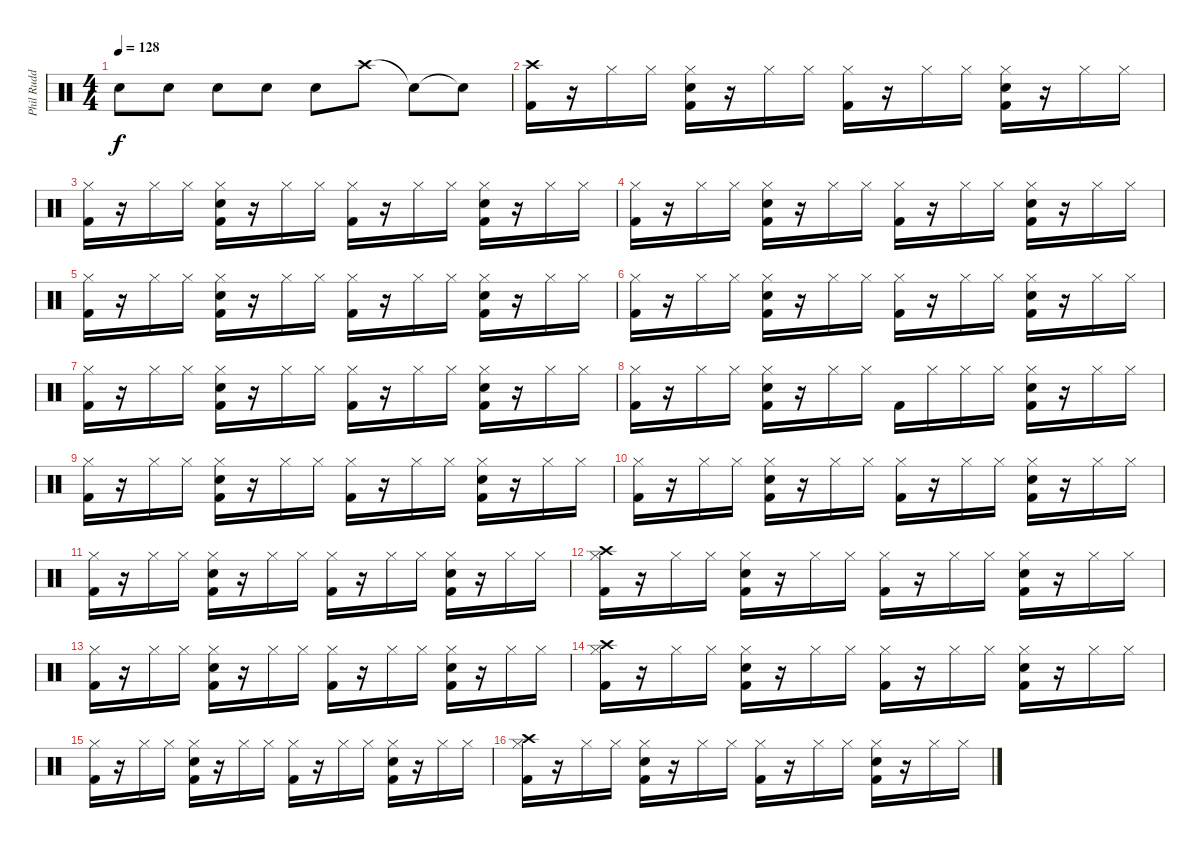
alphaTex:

\track ("Phil Rudd" "Phil Rudd") {instrument percussion}
\staff {score}
\articulation defaults
\ts (4 4)
\tempo 128
\clef neutral
\ks c "Snare (hit) 2".8{dy f} "Snare (hit) 2".8 "Snare (hit) 2".8 "Snare (hit) 2".8 "Snare (hit) 2".8 "Crash high (hit)".8 "Snare (hit)"{t}.8 "Snare (hit)"{t}.8
|
("Crash high (hit)" "Kick (hit) 2").16 r.16 "Hi-Hat (closed)".16 "Hi-Hat (closed)".16 ("Hi-Hat (closed)" "Snare (hit) 2" "Kick (hit) 2").16 r.16 "Hi-Hat (closed)".16 "Hi-Hat (closed)".16 ("Hi-Hat (closed)" "Kick (hit) 2").16 r.16 "Hi-Hat (closed)".16 "Hi-Hat (closed)".16 ("Hi-Hat (closed)" "Snare (hit) 2" "Kick (hit) 2").16 r.16 "Hi-Hat (closed)".16 "Hi-Hat (closed)".16 |
("Hi-Hat (closed)" "Kick (hit) 2").16 r.16 "Hi-Hat (closed)".16 "Hi-Hat (closed)".16 ("Hi-Hat (closed)" "Snare (hit) 2" "Kick (hit) 2").16 r.16 "Hi-Hat (closed)".16 "Hi-Hat (closed)".16 ("Hi-Hat (closed)" "Kick (hit) 2").16 r.16 "Hi-Hat (closed)".16 "Hi-Hat (closed)".16 ("Hi-Hat (closed)" "Snare (hit) 2" "Kick (hit) 2").16 r.16 "Hi-Hat (closed)".16 "Hi-Hat (closed)".16 |
("Hi-Hat (closed)" "Kick (hit) 2").16 r.16 "Hi-Hat (closed)".16 "Hi-Hat (closed)".16 ("Hi-Hat (closed)" "Snare (hit) 2" "Kick (hit) 2").16 r.16 "Hi-Hat (closed)".16 "Hi-Hat (closed)".16 ("Hi-Hat (closed)" "Kick (hit) 2").16 r.16 "Hi-Hat (closed)".16 "Hi-Hat (closed)".16 ("Hi-Hat (closed)" "Snare (hit) 2" "Kick (hit) 2").16 r.16 "Hi-Hat (closed)".16 "Hi-Hat (closed)".16 |
("Hi-Hat (closed)" "Kick (hit) 2").16 r.16 "Hi-Hat (closed)".16 "Hi-Hat (closed)".16 ("Hi-Hat (closed)" "Snare (hit) 2" "Kick (hit) 2").16 r.16 "Hi-Hat (closed)".16 "Hi-Hat (closed)".16 ("Hi-Hat (closed)" "Kick (hit) 2").16 r.16 "Hi-Hat (closed)".16 "Hi-Hat (closed)".16 ("Hi-Hat (closed)" "Snare (hit) 2" "Kick (hit) 2").16 r.16 "Hi-Hat (closed)".16 "Hi-Hat (closed)".16 |
("Hi-Hat (closed)" "Kick (hit) 2").16 r.16 "Hi-Hat (closed)".16 "Hi-Hat (closed)".16 ("Hi-Hat (closed)" "Snare (hit) 2" "Kick (hit) 2").16 r.16 "Hi-Hat (closed)".16 "Hi-Hat (closed)".16 ("Hi-Hat (closed)" "Kick (hit) 2").16 r.16 "Hi-Hat (closed)".16 "Hi-Hat (closed)".16 ("Hi-Hat (closed)" "Snare (hit) 2" "Kick (hit) 2").16 r.16 "Hi-Hat (closed)".16 "Hi-Hat (closed)".16 |
("Hi-Hat (closed)" "Kick (hit) 2").16 r.16 "Hi-Hat (closed)".16 "Hi-Hat (closed)".16 ("Hi-Hat (closed)" "Snare (hit) 2" "Kick (hit) 2").16 r.16 "Hi-Hat (closed)".16 "Hi-Hat (closed)".16 ("Hi-Hat (closed)" "Kick (hit) 2").16 r.16 "Hi-Hat (closed)".16 "Hi-Hat (closed)".16 ("Hi-Hat (closed)" "Snare (hit) 2" "Kick (hit) 2").16 r.16 "Hi-Hat (closed)".16 "Hi-Hat (closed)".16 |
("Hi-Hat (closed)" "Kick (hit) 2").16 r.16 "Hi-Hat (closed)".16 "Hi-Hat (closed)".16 ("Hi-Hat (closed)" "Snare (hit) 2" "Kick (hit) 2").16 r.16 "Hi-Hat (closed)".16 "Hi-Hat (closed)".16 "Kick (hit) 2".16 "Hi-Hat (closed)".16 "Hi-Hat (closed)".16 "Hi-Hat (closed)".16 ("Hi-Hat (closed)" "Snare (hit) 2" "Kick (hit) 2").16 r.16 "Hi-Hat (closed)".16 "Hi-Hat (closed)".16 |
("Hi-Hat (closed)" "Kick (hit) 2").16 r.16 "Hi-Hat (closed)".16 "Hi-Hat (closed)".16 ("Hi-Hat (closed)" "Snare (hit) 2" "Kick (hit) 2").16 r.16 "Hi-Hat (closed)".16 "Hi-Hat (closed)".16 ("Hi-Hat (closed)" "Kick (hit) 2").16 r.16 "Hi-Hat (closed)".16 "Hi-Hat (closed)".16 ("Hi-Hat (closed)" "Snare (hit) 2" "Kick (hit) 2").16 r.16 "Hi-Hat (closed)".16 "Hi-Hat (closed)".16 |
("Hi-Hat (closed)" "Kick (hit) 2").16 r.16 "Hi-Hat (closed)".16 "Hi-Hat (closed)".16 ("Hi-Hat (closed)" "Snare (hit) 2" "Kick (hit) 2").16 r.16 "Hi-Hat (closed)".16 "Hi-Hat (closed)".16 ("Hi-Hat (closed)" "Kick (hit) 2").16 r.16 "Hi-Hat (closed)".16 "Hi-Hat (closed)".16 ("Hi-Hat (closed)" "Snare (hit) 2" "Kick (hit) 2").16 r.16 "Hi-Hat (closed)".16 "Hi-Hat (closed)".16 |
("Hi-Hat (closed)" "Kick (hit) 2").16 r.16 "Hi-Hat (closed)".16 "Hi-Hat (closed)".16 ("Hi-Hat (closed)" "Snare (hit) 2" "Kick (hit) 2").16 r.16 "Hi-Hat (closed)".16 "Hi-Hat (closed)".16 ("Hi-Hat (closed)" "Kick (hit) 2").16 r.16 "Hi-Hat (closed)".16 "Hi-Hat (closed)".16 ("Hi-Hat (closed)" "Snare (hit) 2" "Kick (hit) 2").16 r.16 "Hi-Hat (closed)".16 "Hi-Hat (closed)".16 |
("Hi-Hat (closed)" "Crash high (hit)" "Kick (hit) 2").16 r.16 "Hi-Hat (closed)".16 "Hi-Hat (closed)".16 ("Hi-Hat (closed)" "Snare (hit) 2" "Kick (hit) 2").16 r.16 "Hi-Hat (closed)".16 "Hi-Hat (closed)".16 ("Hi-Hat (closed)" "Kick (hit) 2").16 r.16 "Hi-Hat (closed)".16 "Hi-Hat (closed)".16 ("Hi-Hat (closed)" "Snare (hit) 2" "Kick (hit) 2").16 r.16 "Hi-Hat (closed)".16 "Hi-Hat (closed)".16 |
("Hi-Hat (closed)" "Kick (hit) 2").16 r.16 "Hi-Hat (closed)".16 "Hi-Hat (closed)".16 ("Hi-Hat (closed)" "Snare (hit) 2" "Kick (hit) 2").16 r.16 "Hi-Hat (closed)".16 "Hi-Hat (closed)".16 ("Hi-Hat (closed)" "Kick (hit) 2").16 r.16 "Hi-Hat (closed)".16 "Hi-Hat (closed)".16 ("Hi-Hat (closed)" "Snare (hit) 2" "Kick (hit) 2").16 r.16 "Hi-Hat (closed)".16 "Hi-Hat (closed)".16 |
("Hi-Hat (closed)" "Crash high (hit)" "Kick (hit) 2").16 r.16 "Hi-Hat (closed)".16 "Hi-Hat (closed)".16 ("Hi-Hat (closed)" "Snare (hit) 2" "Kick (hit) 2").16 r.16 "Hi-Hat (closed)".16 "Hi-Hat (closed)".16 ("Hi-Hat (closed)" "Kick (hit) 2").16 r.16 "Hi-Hat (closed)".16 "Hi-Hat (closed)".16 ("Hi-Hat (closed)" "Snare (hit) 2" "Kick (hit) 2").16 r.16 "Hi-Hat (closed)".16 "Hi-Hat (closed)".16 |
("Hi-Hat (closed)" "Kick (hit) 2").16 r.16 "Hi-Hat (closed)".16 "Hi-Hat (closed)".16 ("Hi-Hat (closed)" "Snare (hit) 2" "Kick (hit) 2").16 r.16 "Hi-Hat (closed)".16 "Hi-Hat (closed)".16 ("Hi-Hat (closed)" "Kick (hit) 2").16 r.16 "Hi-Hat (closed)".16 "Hi-Hat (closed)".16 ("Hi-Hat (closed)" "Snare (hit) 2" "Kick (hit) 2").16 r.16 "Hi-Hat (closed)".16 "Hi-Hat (closed)".16 |
("Hi-Hat (closed)" "Crash high (hit)" "Kick (hit) 2").16 r.16 "Hi-Hat (closed)".16 "Hi-Hat (closed)".16 ("Hi-Hat (closed)" "Snare (hit) 2" "Kick (hit) 2").16 r.16 "Hi-Hat (closed)".16 "Hi-Hat (closed)".16 ("Hi-Hat (closed)" "Kick (hit) 2").16 r.16 "Hi-Hat (closed)".16 "Hi-Hat (closed)".16 ("Hi-Hat (closed)" "Snare (hit) 2" "Kick (hit) 2").16 r.16 "Hi-Hat (closed)".16 "Hi-Hat (closed)".16
